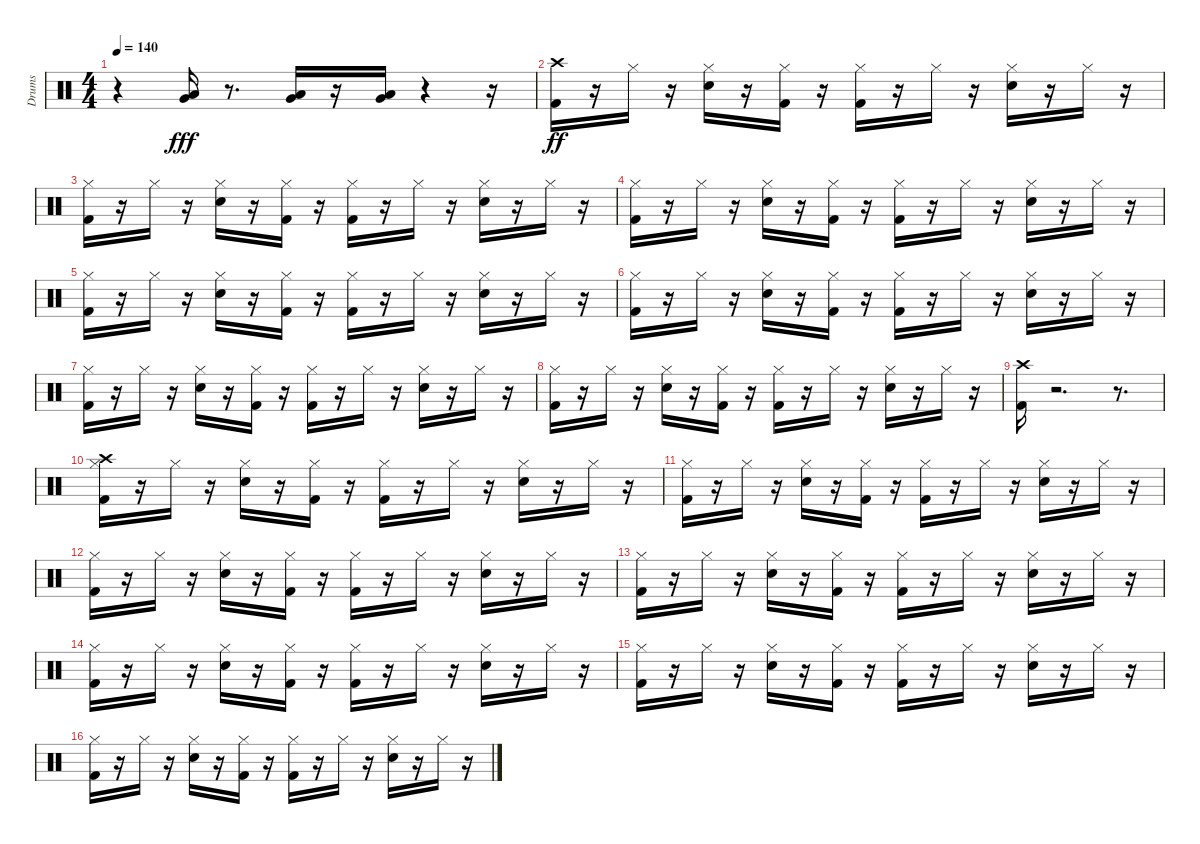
\track ("Drums" "Drums") {instrument percussion}
\staff {score}
\articulation defaults
\ts (4 4)
\tempo 140
\clef neutral
\ks c
r.4{dy fff} ("Very Low Tom (hit)" "Low Floor Tom (hit)").16 r.8{d} ("Very Low Tom (hit)" "Low Floor Tom (hit)").16 r.16 ("Very Low Tom (hit)" "Low Floor Tom (hit)").16 r.4 r.16 |
("Crash high (hit)" "Kick (hit) 2").16{dy ff} r.16 "Hi-Hat (closed)".16 r.16 ("Hi-Hat (closed)" "Snare (hit) 2").16 r.16 ("Hi-Hat (closed)" "Kick (hit) 2").16 r.16 ("Hi-Hat (closed)" "Kick (hit) 2").16 r.16 "Hi-Hat (closed)".16 r.16 ("Hi-Hat (closed)" "Snare (hit) 2").16 r.16 "Hi-Hat (closed)".16 r.16 |
("Hi-Hat (closed)" "Kick (hit) 2").16 r.16 "Hi-Hat (closed)".16 r.16 ("Hi-Hat (closed)" "Snare (hit) 2").16 r.16 ("Hi-Hat (closed)" "Kick (hit) 2").16 r.16 ("Hi-Hat (closed)" "Kick (hit) 2").16 r.16 "Hi-Hat (closed)".16 r.16 ("Hi-Hat (closed)" "Snare (hit) 2").16 r.16 "Hi-Hat (closed)".16 r.16 |
("Hi-Hat (closed)" "Kick (hit) 2").16 r.16 "Hi-Hat (closed)".16 r.16 ("Hi-Hat (closed)" "Snare (hit) 2").16 r.16 ("Hi-Hat (closed)" "Kick (hit) 2").16 r.16 ("Hi-Hat (closed)" "Kick (hit) 2").16 r.16 "Hi-Hat (closed)".16 r.16 ("Hi-Hat (closed)" "Snare (hit) 2").16 r.16 "Hi-Hat (closed)".16 r.16 |
("Hi-Hat (closed)" "Kick (hit) 2").16 r.16 "Hi-Hat (closed)".16 r.16 ("Hi-Hat (closed)" "Snare (hit) 2").16 r.16 ("Hi-Hat (closed)" "Kick (hit) 2").16 r.16 ("Hi-Hat (closed)" "Kick (hit) 2").16 r.16 "Hi-Hat (closed)".16 r.16 ("Hi-Hat (closed)" "Snare (hit) 2").16 r.16 "Hi-Hat (closed)".16 r.16 |
("Hi-Hat (closed)" "Kick (hit) 2").16 r.16 "Hi-Hat (closed)".16 r.16 ("Hi-Hat (closed)" "Snare (hit) 2").16 r.16 ("Hi-Hat (closed)" "Kick (hit) 2").16 r.16 ("Hi-Hat (closed)" "Kick (hit) 2").16 r.16 "Hi-Hat (closed)".16 r.16 ("Hi-Hat (closed)" "Snare (hit) 2").16 r.16 "Hi-Hat (closed)".16 r.16 |
("Hi-Hat (closed)" "Kick (hit) 2").16 r.16 "Hi-Hat (closed)".16 r.16 ("Hi-Hat (closed)" "Snare (hit) 2").16 r.16 ("Hi-Hat (closed)" "Kick (hit) 2").16 r.16 ("Hi-Hat (closed)" "Kick (hit) 2").16 r.16 "Hi-Hat (closed)".16 r.16 ("Hi-Hat (closed)" "Snare (hit) 2").16 r.16 "Hi-Hat (closed)".16 r.16 |
("Hi-Hat (closed)" "Kick (hit) 2").16 r.16 "Hi-Hat (closed)".16 r.16 ("Hi-Hat (closed)" "Snare (hit) 2").16 r.16 ("Hi-Hat (closed)" "Kick (hit) 2").16 r.16 ("Hi-Hat (closed)" "Kick (hit) 2").16 r.16 "Hi-Hat (closed)".16 r.16 ("Hi-Hat (closed)" "Snare (hit) 2").16 r.16 "Hi-Hat (closed)".16 r.16 |
("Crash high (hit)" "Kick (hit) 2").16 r.2{d} r.8{d} |
("Hi-Hat (closed)" "Kick (hit) 2" "Crash high (hit)").16 r.16 "Hi-Hat (closed)".16 r.16 ("Hi-Hat (closed)" "Snare (hit) 2").16 r.16 ("Hi-Hat (closed)" "Kick (hit) 2").16 r.16 ("Hi-Hat (closed)" "Kick (hit) 2").16 r.16 "Hi-Hat (closed)".16 r.16 ("Hi-Hat (closed)" "Snare (hit) 2").16 r.16 "Hi-Hat (closed)".16 r.16 |
("Hi-Hat (closed)" "Kick (hit) 2").16 r.16 "Hi-Hat (closed)".16 r.16 ("Hi-Hat (closed)" "Snare (hit) 2").16 r.16 ("Hi-Hat (closed)" "Kick (hit) 2").16 r.16 ("Hi-Hat (closed)" "Kick (hit) 2").16 r.16 "Hi-Hat (closed)".16 r.16 ("Hi-Hat (closed)" "Snare (hit) 2").16 r.16 "Hi-Hat (closed)".16 r.16 |
("Hi-Hat (closed)" "Kick (hit) 2").16 r.16 "Hi-Hat (closed)".16 r.16 ("Hi-Hat (closed)" "Snare (hit) 2").16 r.16 ("Hi-Hat (closed)" "Kick (hit) 2").16 r.16 ("Hi-Hat (closed)" "Kick (hit) 2").16 r.16 "Hi-Hat (closed)".16 r.16 ("Hi-Hat (closed)" "Snare (hit) 2").16 r.16 "Hi-Hat (closed)".16 r.16 |
("Hi-Hat (closed)" "Kick (hit) 2").16 r.16 "Hi-Hat (closed)".16 r.16 ("Hi-Hat (closed)" "Snare (hit) 2").16 r.16 ("Hi-Hat (closed)" "Kick (hit) 2").16 r.16 ("Hi-Hat (closed)" "Kick (hit) 2").16 r.16 "Hi-Hat (closed)".16 r.16 ("Hi-Hat (closed)" "Snare (hit) 2").16 r.16 "Hi-Hat (closed)".16 r.16 |
("Hi-Hat (closed)" "Kick (hit) 2").16 r.16 "Hi-Hat (closed)".16 r.16 ("Hi-Hat (closed)" "Snare (hit) 2").16 r.16 ("Hi-Hat (closed)" "Kick (hit) 2").16 r.16 ("Hi-Hat (closed)" "Kick (hit) 2").16 r.16 "Hi-Hat (closed)".16 r.16 ("Hi-Hat (closed)" "Snare (hit) 2").16 r.16 "Hi-Hat (closed)".16 r.16 |
("Hi-Hat (closed)" "Kick (hit) 2").16 r.16 "Hi-Hat (closed)".16 r.16 ("Hi-Hat (closed)" "Snare (hit) 2").16 r.16 ("Hi-Hat (closed)" "Kick (hit) 2").16 r.16 ("Hi-Hat (closed)" "Kick (hit) 2").16 r.16 "Hi-Hat (closed)".16 r.16 ("Hi-Hat (closed)" "Snare (hit) 2").16 r.16 "Hi-Hat (closed)".16 r.16 |
("Hi-Hat (closed)" "Kick (hit) 2").16 r.16 "Hi-Hat (closed)".16 r.16 ("Hi-Hat (closed)" "Snare (hit) 2").16 r.16 ("Hi-Hat (closed)" "Kick (hit) 2").16 r.16 ("Hi-Hat (closed)" "Kick (hit) 2").16 r.16 "Hi-Hat (closed)".16 r.16 ("Hi-Hat (closed)" "Snare (hit) 2").16 r.16 "Hi-Hat (closed)".16 r.16
